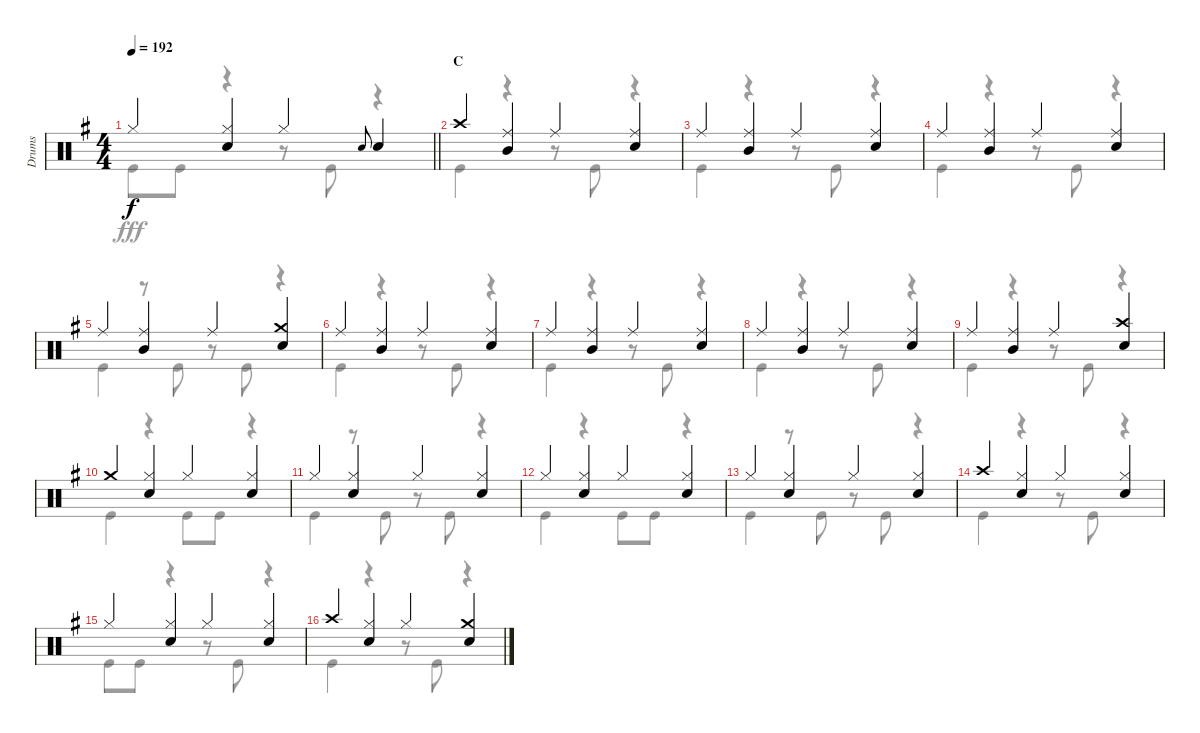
\track ("Drums" "Drums") {instrument percussion}
\staff {score}
\articulation defaults
\voice
\ts (4 4)
\tempo 192
\clef neutral
\barLineRight lightlight
\ks g "Hi-Hat (closed)".4{dy f}
("Hi-Hat (closed)" "Snare (hit) 2").4 "Hi-Hat (closed)".4 "Snare (hit) 2".8{gr onbeat} "Snare (hit) 2".4 |
\section ("" "C")
"Crash high (hit)".4 ("Ride (middle)" "Mid Tom (hit)").4 "Ride (middle)".4 ("Ride (middle)" "Snare (hit) 2").4 |
"Ride (middle)".4 ("Ride (middle)" "Mid Tom (hit)").4 "Ride (middle)".4 ("Ride (middle)" "Snare (hit) 2").4 |
"Ride (middle)".4 ("Ride (middle)" "Mid Tom (hit)").4 "Ride (middle)".4 ("Ride (middle)" "Snare (hit) 2").4 |
"Ride (middle)".4 ("Ride (middle)" "Mid Tom (hit)").4 "Ride (middle)".4 ("Crash medium (hit)" "Snare (hit) 2").4 |
"Ride (middle)".4 ("Ride (middle)" "Mid Tom (hit)").4 "Ride (middle)".4 ("Ride (middle)" "Snare (hit) 2").4 |
"Ride (middle)".4 ("Ride (middle)" "Mid Tom (hit)").4 "Ride (middle)".4 ("Ride (middle)" "Snare (hit) 2").4 |
"Ride (middle)".4 ("Ride (middle)" "Mid Tom (hit)").4 "Ride (middle)".4 ("Ride (middle)" "Snare (hit) 2").4 |
"Ride (middle)".4 ("Ride (middle)" "Mid Tom (hit)").4 "Ride (middle)".4 ("Crash high (hit)" "Snare (hit) 2").4 |
"Crash medium (hit)".4 ("Hi-Hat (closed)" "Snare (hit) 2").4 "Hi-Hat (closed)".4 ("Hi-Hat (closed)" "Snare (hit) 2").4 |
"Hi-Hat (closed)".4 ("Hi-Hat (closed)" "Snare (hit) 2").4 "Hi-Hat (closed)".4 ("Hi-Hat (closed)" "Snare (hit) 2").4 |
"Hi-Hat (closed)".4 ("Hi-Hat (closed)" "Snare (hit) 2").4 "Hi-Hat (closed)".4 ("Hi-Hat (closed)" "Snare (hit) 2").4 |
"Hi-Hat (closed)".4 ("Hi-Hat (closed)" "Snare (hit) 2").4 "Hi-Hat (closed)".4 ("Hi-Hat (closed)" "Snare (hit) 2").4 |
"Crash high (hit)".4 ("Hi-Hat (closed)" "Snare (hit) 2").4 "Hi-Hat (closed)".4 ("Hi-Hat (closed)" "Snare (hit) 2").4 |
"Hi-Hat (closed)".4 ("Hi-Hat (closed)" "Snare (hit) 2").4 "Hi-Hat (closed)".4 ("Hi-Hat (closed)" "Snare (hit) 2").4 |
"Crash high (hit)".4 ("Hi-Hat (closed)" "Snare (hit) 2").4 "Hi-Hat (closed)".4 ("Crash medium (hit)" "Snare (hit) 2").4
\voice
\clef neutral
\ottava regular
\simile none
\barLineRight lightlight
\ks g "Kick (hit)".8{dy fff} "Kick (hit)".8
r.4 r.8 "Kick (hit)".8 r.4 |
"Kick (hit)".4 r.4 r.8 "Kick (hit)".8 r.4 |
"Kick (hit)".4 r.4 r.8 "Kick (hit)".8 r.4 |
"Kick (hit)".4 r.4 r.8 "Kick (hit)".8 r.4 |
"Kick (hit)".4 r.8 "Kick (hit)".8 r.8 "Kick (hit)".8 r.4 |
"Kick (hit)".4 r.4 r.8 "Kick (hit)".8 r.4 |
"Kick (hit)".4 r.4 r.8 "Kick (hit)".8 r.4 |
"Kick (hit)".4 r.4 r.8 "Kick (hit)".8 r.4 |
"Kick (hit)".4 r.4 r.8 "Kick (hit)".8 r.4 |
"Kick (hit)".4 r.4 "Kick (hit)".8 "Kick (hit)".8 r.4 |
"Kick (hit)".4 r.8 "Kick (hit)".8 r.8 "Kick (hit)".8 r.4 |
"Kick (hit)".4 r.4 "Kick (hit)".8 "Kick (hit)".8 r.4 |
"Kick (hit)".4 r.8 "Kick (hit)".8 r.8 "Kick (hit)".8 r.4 |
"Kick (hit)".4 r.4 r.8 "Kick (hit)".8 r.4 |
"Kick (hit)".8 "Kick (hit)".8 r.4 r.8 "Kick (hit)".8 r.4 |
"Kick (hit)".4 r.4 r.8 "Kick (hit)".8 r.4
